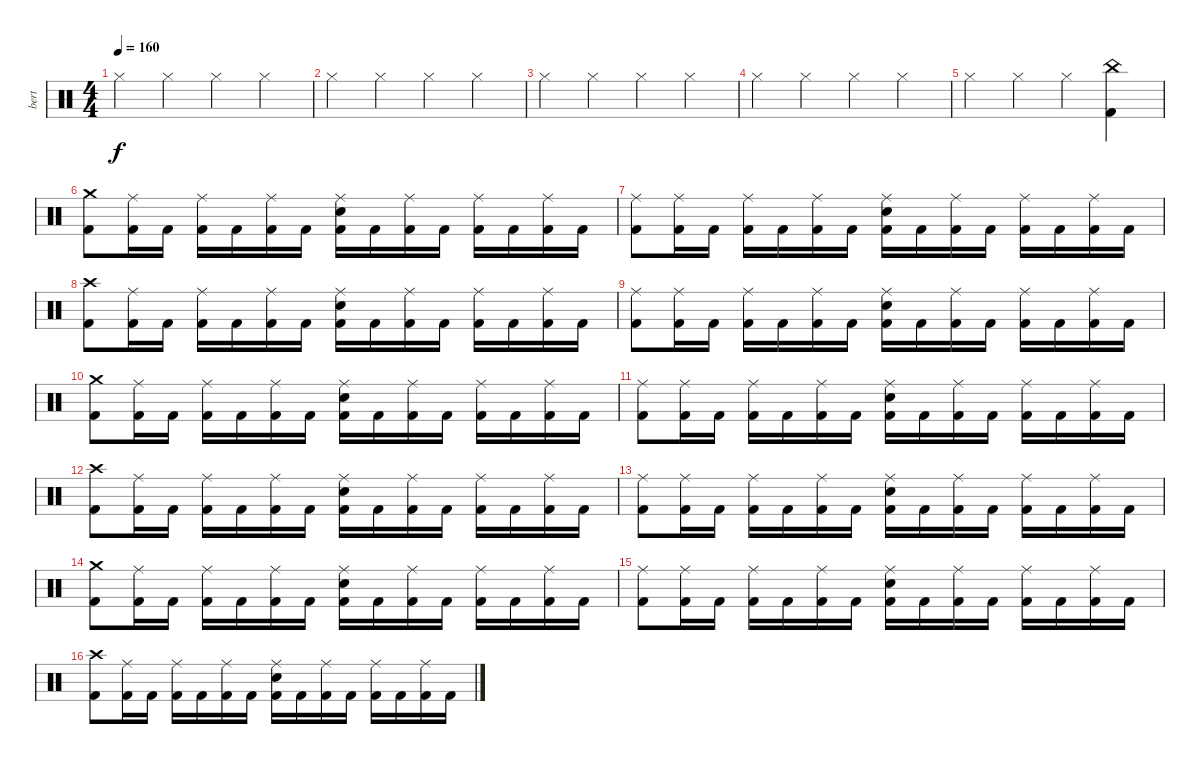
\track ("bert" "bert") {instrument percussion}
\staff {score}
\articulation defaults
\ts (4 4)
\tempo 160
\clef neutral
\ks c "Hi-Hat (closed)".4{dy f} "Hi-Hat (closed)".4 "Hi-Hat (closed)".4 "Hi-Hat (closed)".4
|
"Hi-Hat (closed)".4 "Hi-Hat (closed)".4 "Hi-Hat (closed)".4 "Hi-Hat (closed)".4 |
"Hi-Hat (closed)".4 "Hi-Hat (closed)".4 "Hi-Hat (closed)".4 "Hi-Hat (closed)".4 |
"Hi-Hat (closed)".4 "Hi-Hat (closed)".4 "Hi-Hat (closed)".4 "Hi-Hat (closed)".4 |
"Hi-Hat (closed)".4 "Hi-Hat (closed)".4 "Hi-Hat (closed)".4 ("China (hit)" "Kick (hit) 2").4 |
("Crash medium (hit)" "Kick (hit) 2").8 ("Ride (middle)" "Kick (hit) 2").16 "Kick (hit) 2".16 ("Ride (middle)" "Kick (hit) 2").16 "Kick (hit) 2".16 ("Ride (middle)" "Kick (hit) 2").16 "Kick (hit) 2".16 ("Ride (middle)" "Snare (hit) 2" "Kick (hit) 2").16 "Kick (hit) 2".16 ("Ride (middle)" "Kick (hit) 2").16 "Kick (hit) 2".16 ("Ride (middle)" "Kick (hit) 2").16 "Kick (hit) 2".16 ("Ride (middle)" "Kick (hit) 2").16 "Kick (hit) 2".16 |
("Ride (middle)" "Kick (hit) 2").8 ("Ride (middle)" "Kick (hit) 2").16 "Kick (hit) 2".16 ("Ride (middle)" "Kick (hit) 2").16 "Kick (hit) 2".16 ("Ride (middle)" "Kick (hit) 2").16 "Kick (hit) 2".16 ("Ride (middle)" "Snare (hit) 2" "Kick (hit) 2").16 "Kick (hit) 2".16 ("Ride (middle)" "Kick (hit) 2").16 "Kick (hit) 2".16 ("Ride (middle)" "Kick (hit) 2").16 "Kick (hit) 2".16 ("Ride (middle)" "Kick (hit) 2").16 "Kick (hit) 2".16 |
("Crash high (hit)" "Kick (hit) 2").8 ("Ride (middle)" "Kick (hit) 2").16 "Kick (hit) 2".16 ("Ride (middle)" "Kick (hit) 2").16 "Kick (hit) 2".16 ("Ride (middle)" "Kick (hit) 2").16 "Kick (hit) 2".16 ("Ride (middle)" "Snare (hit) 2" "Kick (hit) 2").16 "Kick (hit) 2".16 ("Ride (middle)" "Kick (hit) 2").16 "Kick (hit) 2".16 ("Ride (middle)" "Kick (hit) 2").16 "Kick (hit) 2".16 ("Ride (middle)" "Kick (hit) 2").16 "Kick (hit) 2".16 |
("Ride (middle)" "Kick (hit) 2").8 ("Ride (middle)" "Kick (hit) 2").16 "Kick (hit) 2".16 ("Ride (middle)" "Kick (hit) 2").16 "Kick (hit) 2".16 ("Ride (middle)" "Kick (hit) 2").16 "Kick (hit) 2".16 ("Ride (middle)" "Snare (hit) 2" "Kick (hit) 2").16 "Kick (hit) 2".16 ("Ride (middle)" "Kick (hit) 2").16 "Kick (hit) 2".16 ("Ride (middle)" "Kick (hit) 2").16 "Kick (hit) 2".16 ("Ride (middle)" "Kick (hit) 2").16 "Kick (hit) 2".16 |
("Crash medium (hit)" "Kick (hit) 2").8 ("Ride (middle)" "Kick (hit) 2").16 "Kick (hit) 2".16 ("Ride (middle)" "Kick (hit) 2").16 "Kick (hit) 2".16 ("Ride (middle)" "Kick (hit) 2").16 "Kick (hit) 2".16 ("Ride (middle)" "Snare (hit) 2" "Kick (hit) 2").16 "Kick (hit) 2".16 ("Ride (middle)" "Kick (hit) 2").16 "Kick (hit) 2".16 ("Ride (middle)" "Kick (hit) 2").16 "Kick (hit) 2".16 ("Ride (middle)" "Kick (hit) 2").16 "Kick (hit) 2".16 |
("Ride (middle)" "Kick (hit) 2").8 ("Ride (middle)" "Kick (hit) 2").16 "Kick (hit) 2".16 ("Ride (middle)" "Kick (hit) 2").16 "Kick (hit) 2".16 ("Ride (middle)" "Kick (hit) 2").16 "Kick (hit) 2".16 ("Ride (middle)" "Snare (hit) 2" "Kick (hit) 2").16 "Kick (hit) 2".16 ("Ride (middle)" "Kick (hit) 2").16 "Kick (hit) 2".16 ("Ride (middle)" "Kick (hit) 2").16 "Kick (hit) 2".16 ("Ride (middle)" "Kick (hit) 2").16 "Kick (hit) 2".16 |
("Crash high (hit)" "Kick (hit) 2").8 ("Ride (middle)" "Kick (hit) 2").16 "Kick (hit) 2".16 ("Ride (middle)" "Kick (hit) 2").16 "Kick (hit) 2".16 ("Ride (middle)" "Kick (hit) 2").16 "Kick (hit) 2".16 ("Ride (middle)" "Snare (hit) 2" "Kick (hit) 2").16 "Kick (hit) 2".16 ("Ride (middle)" "Kick (hit) 2").16 "Kick (hit) 2".16 ("Ride (middle)" "Kick (hit) 2").16 "Kick (hit) 2".16 ("Ride (middle)" "Kick (hit) 2").16 "Kick (hit) 2".16 |
("Ride (middle)" "Kick (hit) 2").8 ("Ride (middle)" "Kick (hit) 2").16 "Kick (hit) 2".16 ("Ride (middle)" "Kick (hit) 2").16 "Kick (hit) 2".16 ("Ride (middle)" "Kick (hit) 2").16 "Kick (hit) 2".16 ("Ride (middle)" "Snare (hit) 2" "Kick (hit) 2").16 "Kick (hit) 2".16 ("Ride (middle)" "Kick (hit) 2").16 "Kick (hit) 2".16 ("Ride (middle)" "Kick (hit) 2").16 "Kick (hit) 2".16 ("Ride (middle)" "Kick (hit) 2").16 "Kick (hit) 2".16 |
("Crash medium (hit)" "Kick (hit) 2").8 ("Ride (middle)" "Kick (hit) 2").16 "Kick (hit) 2".16 ("Ride (middle)" "Kick (hit) 2").16 "Kick (hit) 2".16 ("Ride (middle)" "Kick (hit) 2").16 "Kick (hit) 2".16 ("Ride (middle)" "Snare (hit) 2" "Kick (hit) 2").16 "Kick (hit) 2".16 ("Ride (middle)" "Kick (hit) 2").16 "Kick (hit) 2".16 ("Ride (middle)" "Kick (hit) 2").16 "Kick (hit) 2".16 ("Ride (middle)" "Kick (hit) 2").16 "Kick (hit) 2".16 |
("Ride (middle)" "Kick (hit) 2").8 ("Ride (middle)" "Kick (hit) 2").16 "Kick (hit) 2".16 ("Ride (middle)" "Kick (hit) 2").16 "Kick (hit) 2".16 ("Ride (middle)" "Kick (hit) 2").16 "Kick (hit) 2".16 ("Ride (middle)" "Snare (hit) 2" "Kick (hit) 2").16 "Kick (hit) 2".16 ("Ride (middle)" "Kick (hit) 2").16 "Kick (hit) 2".16 ("Ride (middle)" "Kick (hit) 2").16 "Kick (hit) 2".16 ("Ride (middle)" "Kick (hit) 2").16 "Kick (hit) 2".16 |
("Crash high (hit)" "Kick (hit) 2").8 ("Ride (middle)" "Kick (hit) 2").16 "Kick (hit) 2".16 ("Ride (middle)" "Kick (hit) 2").16 "Kick (hit) 2".16 ("Ride (middle)" "Kick (hit) 2").16 "Kick (hit) 2".16 ("Ride (middle)" "Snare (hit) 2" "Kick (hit) 2").16 "Kick (hit) 2".16 ("Ride (middle)" "Kick (hit) 2").16 "Kick (hit) 2".16 ("Ride (middle)" "Kick (hit) 2").16 "Kick (hit) 2".16 ("Ride (middle)" "Kick (hit) 2").16 "Kick (hit) 2".16
